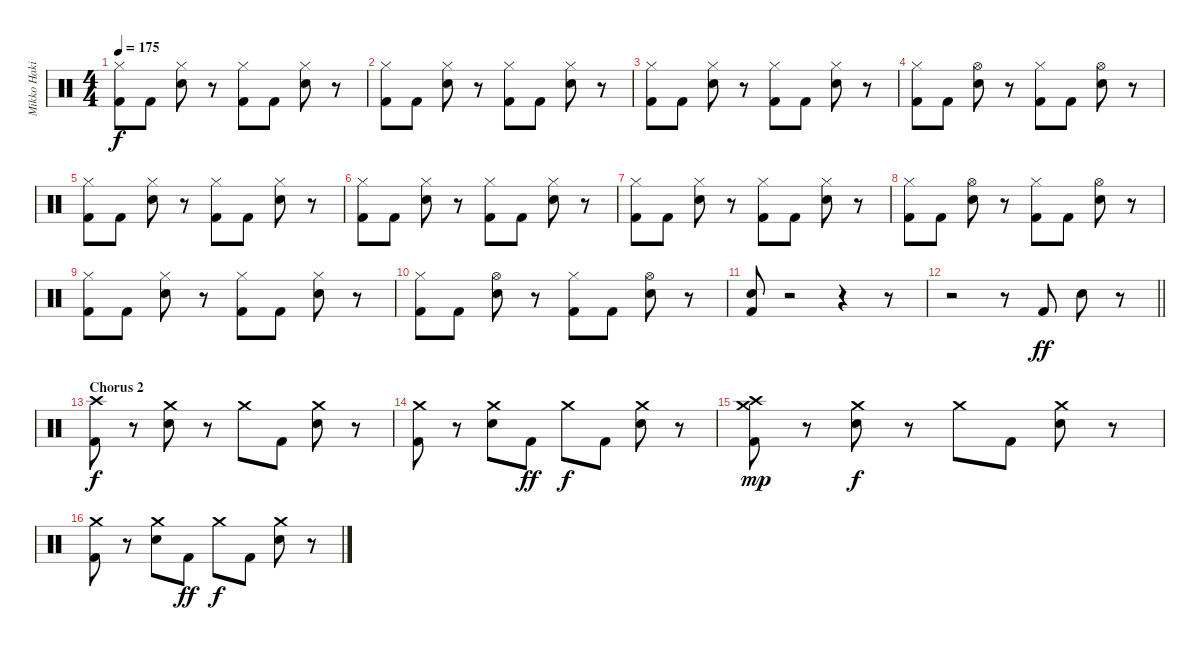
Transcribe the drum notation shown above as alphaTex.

\track ("Mikko Hakila - Drums" "Mikko Haki") {instrument percussion}
\staff {score}
\articulation defaults
\ts (4 4)
\tempo 175
\clef neutral
\ks c
("Hi-Hat (closed)" "Kick (hit) 2").8{dy f} "Kick (hit) 2".8 ("Hi-Hat (closed)" "Electric Snare (hit)").8 r.8 ("Hi-Hat (closed)" "Kick (hit) 2").8 "Kick (hit) 2".8 ("Hi-Hat (closed)" "Electric Snare (hit)").8 r.8 |
("Hi-Hat (closed)" "Kick (hit) 2").8 "Kick (hit) 2".8 ("Hi-Hat (closed)" "Electric Snare (hit)").8 r.8 ("Hi-Hat (closed)" "Kick (hit) 2").8 "Kick (hit) 2".8 ("Hi-Hat (closed)" "Electric Snare (hit)").8 r.8 |
("Hi-Hat (closed)" "Kick (hit) 2").8 "Kick (hit) 2".8 ("Hi-Hat (closed)" "Electric Snare (hit)").8 r.8 ("Hi-Hat (closed)" "Kick (hit) 2").8 "Kick (hit) 2".8 ("Hi-Hat (closed)" "Electric Snare (hit)").8 r.8 |
("Hi-Hat (closed)" "Kick (hit) 2").8 "Kick (hit) 2".8 ("Hi-Hat (open)" "Electric Snare (hit)").8 r.8 ("Hi-Hat (closed)" "Kick (hit) 2").8 "Kick (hit) 2".8 ("Hi-Hat (open)" "Electric Snare (hit)").8 r.8 |
("Hi-Hat (closed)" "Kick (hit) 2").8 "Kick (hit) 2".8 ("Hi-Hat (closed)" "Electric Snare (hit)").8 r.8 ("Hi-Hat (closed)" "Kick (hit) 2").8 "Kick (hit) 2".8 ("Hi-Hat (closed)" "Electric Snare (hit)").8 r.8 |
("Hi-Hat (closed)" "Kick (hit) 2").8 "Kick (hit) 2".8 ("Hi-Hat (closed)" "Electric Snare (hit)").8 r.8 ("Hi-Hat (closed)" "Kick (hit) 2").8 "Kick (hit) 2".8 ("Hi-Hat (closed)" "Electric Snare (hit)").8 r.8 |
("Hi-Hat (closed)" "Kick (hit) 2").8 "Kick (hit) 2".8 ("Hi-Hat (closed)" "Electric Snare (hit)").8 r.8 ("Hi-Hat (closed)" "Kick (hit) 2").8 "Kick (hit) 2".8 ("Hi-Hat (closed)" "Electric Snare (hit)").8 r.8 |
("Hi-Hat (closed)" "Kick (hit) 2").8 "Kick (hit) 2".8 ("Hi-Hat (open)" "Electric Snare (hit)").8 r.8 ("Hi-Hat (closed)" "Kick (hit) 2").8 "Kick (hit) 2".8 ("Hi-Hat (open)" "Electric Snare (hit)").8 r.8 |
("Hi-Hat (closed)" "Kick (hit) 2").8 "Kick (hit) 2".8 ("Hi-Hat (closed)" "Electric Snare (hit)").8 r.8 ("Hi-Hat (closed)" "Kick (hit) 2").8 "Kick (hit) 2".8 ("Hi-Hat (closed)" "Electric Snare (hit)").8 r.8 |
("Hi-Hat (closed)" "Kick (hit) 2").8 "Kick (hit) 2".8 ("Hi-Hat (open)" "Electric Snare (hit)").8 r.8 ("Hi-Hat (closed)" "Kick (hit) 2").8 "Kick (hit) 2".8 ("Hi-Hat (open)" "Electric Snare (hit)").8 r.8 |
("Electric Snare (hit)" "Kick (hit) 2").8 r.2 r.4 r.8 |
\barLineRight lightlight
r.2 r.8 "Kick (hit) 2".8{dy ff} "Electric Snare (hit)".8 r.8 |
\section ("" "Chorus 2")
("Crash high (hit)" "Kick (hit) 2").8{dy f} r.8 ("Crash medium (hit)" "Electric Snare (hit)").8 r.8 "Crash medium (hit)".8 "Kick (hit) 2".8 ("Crash medium (hit)" "Electric Snare (hit)").8 r.8 |
("Crash medium (hit)" "Kick (hit) 2").8 r.8 ("Crash medium (hit)" "Electric Snare (hit)").8 "Kick (hit) 2".8{dy ff} "Crash medium (hit)".8{dy f} "Kick (hit) 2".8 ("Crash medium (hit)" "Electric Snare (hit)").8 r.8 |
("Crash medium (hit)" "Crash high (hit)" "Kick (hit) 2").8{dy mp} r.8 ("Crash medium (hit)" "Electric Snare (hit)").8{dy f} r.8 "Crash medium (hit)".8 "Kick (hit) 2".8 ("Crash medium (hit)" "Electric Snare (hit)").8 r.8 |
("Crash medium (hit)" "Kick (hit) 2").8 r.8 ("Crash medium (hit)" "Electric Snare (hit)").8 "Kick (hit) 2".8{dy ff} "Crash medium (hit)".8{dy f} "Kick (hit) 2".8 ("Crash medium (hit)" "Electric Snare (hit)").8 r.8
